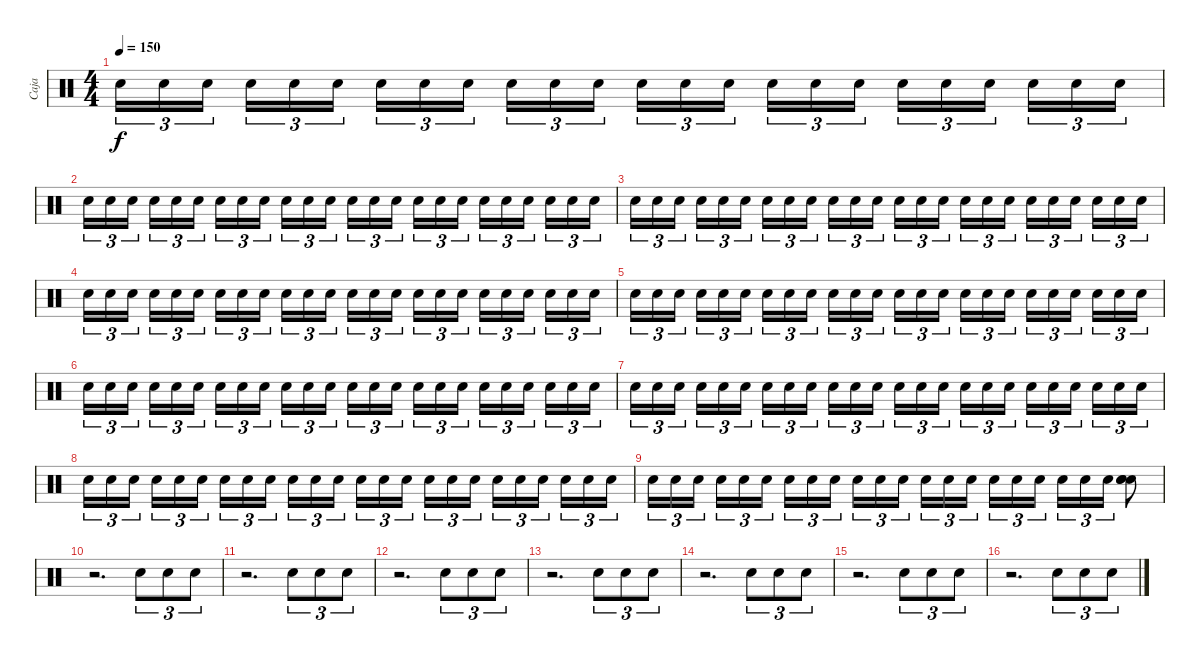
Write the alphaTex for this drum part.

\track ("Caja" "Caja") {instrument percussion}
\staff {score}
\articulation defaults
\ts (4 4)
\tempo 150
\clef neutral
\ks c "Electric Snare (hit)".16{tu (3 2) dy f} "Electric Snare (hit)".16{tu (3 2)} "Electric Snare (hit)".16{tu (3 2)} "Electric Snare (hit)".16{tu (3 2)} "Electric Snare (hit)".16{tu (3 2)} "Electric Snare (hit)".16{tu (3 2)} "Electric Snare (hit)".16{tu (3 2)} "Electric Snare (hit)".16{tu (3 2)} "Electric Snare (hit)".16{tu (3 2)} "Electric Snare (hit)".16{tu (3 2)} "Electric Snare (hit)".16{tu (3 2)} "Electric Snare (hit)".16{tu (3 2)} "Electric Snare (hit)".16{tu (3 2)} "Electric Snare (hit)".16{tu (3 2)} "Electric Snare (hit)".16{tu (3 2)} "Electric Snare (hit)".16{tu (3 2)} "Electric Snare (hit)".16{tu (3 2)} "Electric Snare (hit)".16{tu (3 2)} "Electric Snare (hit)".16{tu (3 2)} "Electric Snare (hit)".16{tu (3 2)} "Electric Snare (hit)".16{tu (3 2)} "Electric Snare (hit)".16{tu (3 2)} "Electric Snare (hit)".16{tu (3 2)} "Electric Snare (hit)".16{tu (3 2)}
|
"Electric Snare (hit)".16{tu (3 2)} "Electric Snare (hit)".16{tu (3 2)} "Electric Snare (hit)".16{tu (3 2)} "Electric Snare (hit)".16{tu (3 2)} "Electric Snare (hit)".16{tu (3 2)} "Electric Snare (hit)".16{tu (3 2)} "Electric Snare (hit)".16{tu (3 2)} "Electric Snare (hit)".16{tu (3 2)} "Electric Snare (hit)".16{tu (3 2)} "Electric Snare (hit)".16{tu (3 2)} "Electric Snare (hit)".16{tu (3 2)} "Electric Snare (hit)".16{tu (3 2)} "Electric Snare (hit)".16{tu (3 2)} "Electric Snare (hit)".16{tu (3 2)} "Electric Snare (hit)".16{tu (3 2)} "Electric Snare (hit)".16{tu (3 2)} "Electric Snare (hit)".16{tu (3 2)} "Electric Snare (hit)".16{tu (3 2)} "Electric Snare (hit)".16{tu (3 2)} "Electric Snare (hit)".16{tu (3 2)} "Electric Snare (hit)".16{tu (3 2)} "Electric Snare (hit)".16{tu (3 2)} "Electric Snare (hit)".16{tu (3 2)} "Electric Snare (hit)".16{tu (3 2)} |
"Electric Snare (hit)".16{tu (3 2)} "Electric Snare (hit)".16{tu (3 2)} "Electric Snare (hit)".16{tu (3 2)} "Electric Snare (hit)".16{tu (3 2)} "Electric Snare (hit)".16{tu (3 2)} "Electric Snare (hit)".16{tu (3 2)} "Electric Snare (hit)".16{tu (3 2)} "Electric Snare (hit)".16{tu (3 2)} "Electric Snare (hit)".16{tu (3 2)} "Electric Snare (hit)".16{tu (3 2)} "Electric Snare (hit)".16{tu (3 2)} "Electric Snare (hit)".16{tu (3 2)} "Electric Snare (hit)".16{tu (3 2)} "Electric Snare (hit)".16{tu (3 2)} "Electric Snare (hit)".16{tu (3 2)} "Electric Snare (hit)".16{tu (3 2)} "Electric Snare (hit)".16{tu (3 2)} "Electric Snare (hit)".16{tu (3 2)} "Electric Snare (hit)".16{tu (3 2)} "Electric Snare (hit)".16{tu (3 2)} "Electric Snare (hit)".16{tu (3 2)} "Electric Snare (hit)".16{tu (3 2)} "Electric Snare (hit)".16{tu (3 2)} "Electric Snare (hit)".16{tu (3 2)} |
"Electric Snare (hit)".16{tu (3 2)} "Electric Snare (hit)".16{tu (3 2)} "Electric Snare (hit)".16{tu (3 2)} "Electric Snare (hit)".16{tu (3 2)} "Electric Snare (hit)".16{tu (3 2)} "Electric Snare (hit)".16{tu (3 2)} "Electric Snare (hit)".16{tu (3 2)} "Electric Snare (hit)".16{tu (3 2)} "Electric Snare (hit)".16{tu (3 2)} "Electric Snare (hit)".16{tu (3 2)} "Electric Snare (hit)".16{tu (3 2)} "Electric Snare (hit)".16{tu (3 2)} "Electric Snare (hit)".16{tu (3 2)} "Electric Snare (hit)".16{tu (3 2)} "Electric Snare (hit)".16{tu (3 2)} "Electric Snare (hit)".16{tu (3 2)} "Electric Snare (hit)".16{tu (3 2)} "Electric Snare (hit)".16{tu (3 2)} "Electric Snare (hit)".16{tu (3 2)} "Electric Snare (hit)".16{tu (3 2)} "Electric Snare (hit)".16{tu (3 2)} "Electric Snare (hit)".16{tu (3 2)} "Electric Snare (hit)".16{tu (3 2)} "Electric Snare (hit)".16{tu (3 2)} |
"Electric Snare (hit)".16{tu (3 2)} "Electric Snare (hit)".16{tu (3 2)} "Electric Snare (hit)".16{tu (3 2)} "Electric Snare (hit)".16{tu (3 2)} "Electric Snare (hit)".16{tu (3 2)} "Electric Snare (hit)".16{tu (3 2)} "Electric Snare (hit)".16{tu (3 2)} "Electric Snare (hit)".16{tu (3 2)} "Electric Snare (hit)".16{tu (3 2)} "Electric Snare (hit)".16{tu (3 2)} "Electric Snare (hit)".16{tu (3 2)} "Electric Snare (hit)".16{tu (3 2)} "Electric Snare (hit)".16{tu (3 2)} "Electric Snare (hit)".16{tu (3 2)} "Electric Snare (hit)".16{tu (3 2)} "Electric Snare (hit)".16{tu (3 2)} "Electric Snare (hit)".16{tu (3 2)} "Electric Snare (hit)".16{tu (3 2)} "Electric Snare (hit)".16{tu (3 2)} "Electric Snare (hit)".16{tu (3 2)} "Electric Snare (hit)".16{tu (3 2)} "Electric Snare (hit)".16{tu (3 2)} "Electric Snare (hit)".16{tu (3 2)} "Electric Snare (hit)".16{tu (3 2)} |
"Electric Snare (hit)".16{tu (3 2)} "Electric Snare (hit)".16{tu (3 2)} "Electric Snare (hit)".16{tu (3 2)} "Electric Snare (hit)".16{tu (3 2)} "Electric Snare (hit)".16{tu (3 2)} "Electric Snare (hit)".16{tu (3 2)} "Electric Snare (hit)".16{tu (3 2)} "Electric Snare (hit)".16{tu (3 2)} "Electric Snare (hit)".16{tu (3 2)} "Electric Snare (hit)".16{tu (3 2)} "Electric Snare (hit)".16{tu (3 2)} "Electric Snare (hit)".16{tu (3 2)} "Electric Snare (hit)".16{tu (3 2)} "Electric Snare (hit)".16{tu (3 2)} "Electric Snare (hit)".16{tu (3 2)} "Electric Snare (hit)".16{tu (3 2)} "Electric Snare (hit)".16{tu (3 2)} "Electric Snare (hit)".16{tu (3 2)} "Electric Snare (hit)".16{tu (3 2)} "Electric Snare (hit)".16{tu (3 2)} "Electric Snare (hit)".16{tu (3 2)} "Electric Snare (hit)".16{tu (3 2)} "Electric Snare (hit)".16{tu (3 2)} "Electric Snare (hit)".16{tu (3 2)} |
"Electric Snare (hit)".16{tu (3 2)} "Electric Snare (hit)".16{tu (3 2)} "Electric Snare (hit)".16{tu (3 2)} "Electric Snare (hit)".16{tu (3 2)} "Electric Snare (hit)".16{tu (3 2)} "Electric Snare (hit)".16{tu (3 2)} "Electric Snare (hit)".16{tu (3 2)} "Electric Snare (hit)".16{tu (3 2)} "Electric Snare (hit)".16{tu (3 2)} "Electric Snare (hit)".16{tu (3 2)} "Electric Snare (hit)".16{tu (3 2)} "Electric Snare (hit)".16{tu (3 2)} "Electric Snare (hit)".16{tu (3 2)} "Electric Snare (hit)".16{tu (3 2)} "Electric Snare (hit)".16{tu (3 2)} "Electric Snare (hit)".16{tu (3 2)} "Electric Snare (hit)".16{tu (3 2)} "Electric Snare (hit)".16{tu (3 2)} "Electric Snare (hit)".16{tu (3 2)} "Electric Snare (hit)".16{tu (3 2)} "Electric Snare (hit)".16{tu (3 2)} "Electric Snare (hit)".16{tu (3 2)} "Electric Snare (hit)".16{tu (3 2)} "Electric Snare (hit)".16{tu (3 2)} |
"Electric Snare (hit)".16{tu (3 2)} "Electric Snare (hit)".16{tu (3 2)} "Electric Snare (hit)".16{tu (3 2)} "Electric Snare (hit)".16{tu (3 2)} "Electric Snare (hit)".16{tu (3 2)} "Electric Snare (hit)".16{tu (3 2)} "Electric Snare (hit)".16{tu (3 2)} "Electric Snare (hit)".16{tu (3 2)} "Electric Snare (hit)".16{tu (3 2)} "Electric Snare (hit)".16{tu (3 2)} "Electric Snare (hit)".16{tu (3 2)} "Electric Snare (hit)".16{tu (3 2)} "Electric Snare (hit)".16{tu (3 2)} "Electric Snare (hit)".16{tu (3 2)} "Electric Snare (hit)".16{tu (3 2)} "Electric Snare (hit)".16{tu (3 2)} "Electric Snare (hit)".16{tu (3 2)} "Electric Snare (hit)".16{tu (3 2)} "Electric Snare (hit)".16{tu (3 2)} "Electric Snare (hit)".16{tu (3 2)} "Electric Snare (hit)".16{tu (3 2)} "Electric Snare (hit)".16{tu (3 2)} "Electric Snare (hit)".16{tu (3 2)} "Electric Snare (hit)".16{tu (3 2)} |
"Electric Snare (hit)".16{tu (3 2)} "Electric Snare (hit)".16{tu (3 2)} "Electric Snare (hit)".16{tu (3 2)} "Electric Snare (hit)".16{tu (3 2)} "Electric Snare (hit)".16{tu (3 2)} "Electric Snare (hit)".16{tu (3 2)} "Electric Snare (hit)".16{tu (3 2)} "Electric Snare (hit)".16{tu (3 2)} "Electric Snare (hit)".16{tu (3 2)} "Electric Snare (hit)".16{tu (3 2)} "Electric Snare (hit)".16{tu (3 2)} "Electric Snare (hit)".16{tu (3 2)} "Electric Snare (hit)".16{tu (3 2)} "Electric Snare (hit)".16{tu (3 2)} "Electric Snare (hit)".16{tu (3 2)} "Electric Snare (hit)".16{tu (3 2)} "Electric Snare (hit)".16{tu (3 2)} "Electric Snare (hit)".16{tu (3 2)} "Electric Snare (hit)".16{tu (3 2)} "Electric Snare (hit)".16{tu (3 2)} "Electric Snare (hit)".16{tu (3 2)} ("Electric Snare (hit)" "Electric Snare (hit)" "Electric Snare (hit)").8 |
r.2{d} "Electric Snare (hit)".8{tu (3 2)} "Electric Snare (hit)".8{tu (3 2)} "Electric Snare (hit)".8{tu (3 2)} |
r.2{d} "Electric Snare (hit)".8{tu (3 2)} "Electric Snare (hit)".8{tu (3 2)} "Electric Snare (hit)".8{tu (3 2)} |
r.2{d} "Electric Snare (hit)".8{tu (3 2)} "Electric Snare (hit)".8{tu (3 2)} "Electric Snare (hit)".8{tu (3 2)} |
r.2{d} "Electric Snare (hit)".8{tu (3 2)} "Electric Snare (hit)".8{tu (3 2)} "Electric Snare (hit)".8{tu (3 2)} |
r.2{d} "Electric Snare (hit)".8{tu (3 2)} "Electric Snare (hit)".8{tu (3 2)} "Electric Snare (hit)".8{tu (3 2)} |
r.2{d} "Electric Snare (hit)".8{tu (3 2)} "Electric Snare (hit)".8{tu (3 2)} "Electric Snare (hit)".8{tu (3 2)} |
r.2{d} "Electric Snare (hit)".8{tu (3 2)} "Electric Snare (hit)".8{tu (3 2)} "Electric Snare (hit)".8{tu (3 2)}
